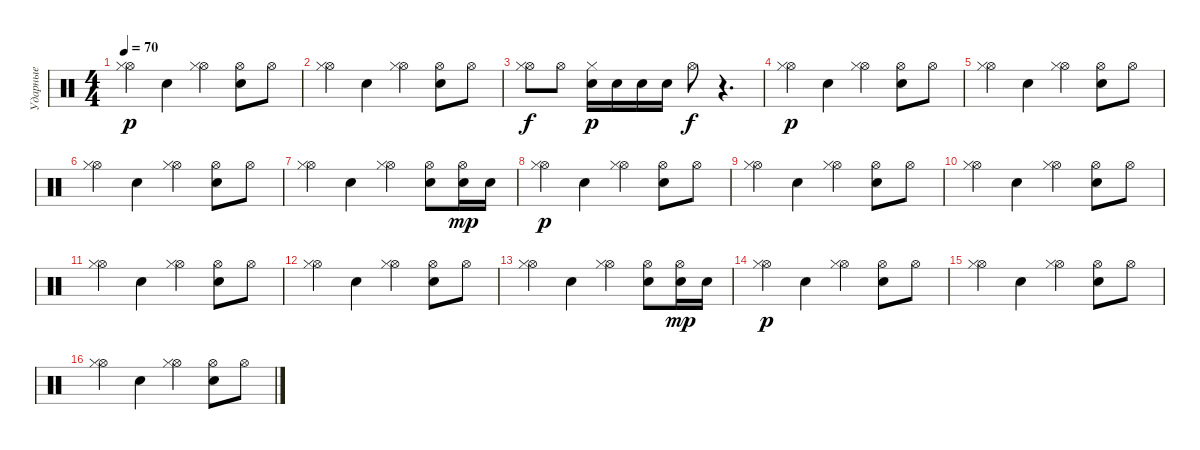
\track ("Ударные" "Ударные") {instrument percussion}
\staff {score}
\articulation defaults
\ts (4 4)
\tempo 70
\clef neutral
\ks c
("Hi-Hat (open)" "Hi-Hat (closed)").4{dy p} "Electric Snare (hit)".4 ("Hi-Hat (open)" "Hi-Hat (closed)").4 ("Hi-Hat (open)" "Electric Snare (hit)").8 "Hi-Hat (open)".8 |
("Hi-Hat (open)" "Hi-Hat (closed)").4 "Electric Snare (hit)".4 ("Hi-Hat (open)" "Hi-Hat (closed)").4 ("Hi-Hat (open)" "Electric Snare (hit)").8 "Hi-Hat (open)".8 |
("Hi-Hat (open)" "Hi-Hat (closed)").8{dy f} "Hi-Hat (open)".8 ("Electric Snare (hit)" "Hi-Hat (closed)").16{dy p} "Electric Snare (hit)".16 "Electric Snare (hit)".16 "Electric Snare (hit)".16 "Hi-Hat (open)".8{dy f} r.4{d} |
("Hi-Hat (open)" "Hi-Hat (closed)").4{dy p} "Electric Snare (hit)".4 ("Hi-Hat (open)" "Hi-Hat (closed)").4 ("Hi-Hat (open)" "Electric Snare (hit)").8 "Hi-Hat (open)".8 |
("Hi-Hat (open)" "Hi-Hat (closed)").4 "Electric Snare (hit)".4 ("Hi-Hat (open)" "Hi-Hat (closed)").4 ("Hi-Hat (open)" "Electric Snare (hit)").8 "Hi-Hat (open)".8 |
("Hi-Hat (open)" "Hi-Hat (closed)").4 "Electric Snare (hit)".4 ("Hi-Hat (open)" "Hi-Hat (closed)").4 ("Hi-Hat (open)" "Electric Snare (hit)").8 "Hi-Hat (open)".8 |
("Hi-Hat (open)" "Hi-Hat (closed)").4 "Electric Snare (hit)".4 ("Hi-Hat (open)" "Hi-Hat (closed)").4 ("Hi-Hat (open)" "Electric Snare (hit)").8 ("Hi-Hat (open)" "Electric Snare (hit)").16{dy mp} "Electric Snare (hit)".16 |
("Hi-Hat (open)" "Hi-Hat (closed)").4{dy p} "Electric Snare (hit)".4 ("Hi-Hat (open)" "Hi-Hat (closed)").4 ("Hi-Hat (open)" "Electric Snare (hit)").8 "Hi-Hat (open)".8 |
("Hi-Hat (open)" "Hi-Hat (closed)").4 "Electric Snare (hit)".4 ("Hi-Hat (open)" "Hi-Hat (closed)").4 ("Hi-Hat (open)" "Electric Snare (hit)").8 "Hi-Hat (open)".8 |
("Hi-Hat (open)" "Hi-Hat (closed)").4 "Electric Snare (hit)".4 ("Hi-Hat (open)" "Hi-Hat (closed)").4 ("Hi-Hat (open)" "Electric Snare (hit)").8 "Hi-Hat (open)".8 |
("Hi-Hat (open)" "Hi-Hat (closed)").4 "Electric Snare (hit)".4 ("Hi-Hat (open)" "Hi-Hat (closed)").4 ("Hi-Hat (open)" "Electric Snare (hit)").8 "Hi-Hat (open)".8 |
("Hi-Hat (open)" "Hi-Hat (closed)").4 "Electric Snare (hit)".4 ("Hi-Hat (open)" "Hi-Hat (closed)").4 ("Hi-Hat (open)" "Electric Snare (hit)").8 "Hi-Hat (open)".8 |
("Hi-Hat (open)" "Hi-Hat (closed)").4 "Electric Snare (hit)".4 ("Hi-Hat (open)" "Hi-Hat (closed)").4 ("Hi-Hat (open)" "Electric Snare (hit)").8 ("Hi-Hat (open)" "Electric Snare (hit)").16{dy mp} "Electric Snare (hit)".16 |
("Hi-Hat (open)" "Hi-Hat (closed)").4{dy p} "Electric Snare (hit)".4 ("Hi-Hat (open)" "Hi-Hat (closed)").4 ("Hi-Hat (open)" "Electric Snare (hit)").8 "Hi-Hat (open)".8 |
("Hi-Hat (open)" "Hi-Hat (closed)").4 "Electric Snare (hit)".4 ("Hi-Hat (open)" "Hi-Hat (closed)").4 ("Hi-Hat (open)" "Electric Snare (hit)").8 "Hi-Hat (open)".8 |
("Hi-Hat (open)" "Hi-Hat (closed)").4 "Electric Snare (hit)".4 ("Hi-Hat (open)" "Hi-Hat (closed)").4 ("Hi-Hat (open)" "Electric Snare (hit)").8 "Hi-Hat (open)".8
